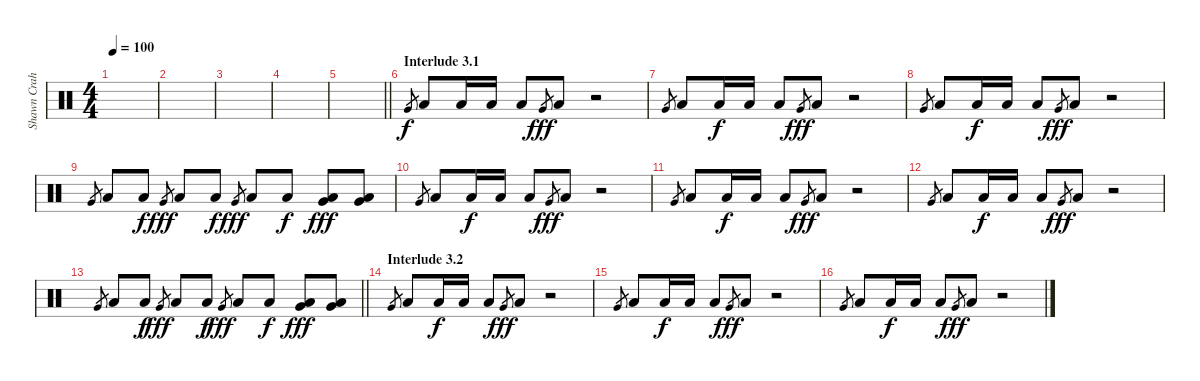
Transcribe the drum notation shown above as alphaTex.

\track ("Shawn Crahan" "Shawn Crah") {instrument percussion}
\staff {score}
\articulation defaults
\ts (4 4)
\tempo 100
\clef neutral
\ks c
|
|
|
|
\barLineRight lightlight
|
\section ("" "Interlude 3.1")
"Very Low Tom (hit)".8{gr} "Low Floor Tom (hit)".8 "Low Floor Tom (hit)".16{dy f} "Low Floor Tom (hit)".16 "Low Floor Tom (hit)".8 "Very Low Tom (hit)".8{gr dy fff} "Low Floor Tom (hit)".8 r.2 |
"Very Low Tom (hit)".8{gr} "Low Floor Tom (hit)".8 "Low Floor Tom (hit)".16{dy f} "Low Floor Tom (hit)".16 "Low Floor Tom (hit)".8 "Very Low Tom (hit)".8{gr dy fff} "Low Floor Tom (hit)".8 r.2 |
"Very Low Tom (hit)".8{gr} "Low Floor Tom (hit)".8 "Low Floor Tom (hit)".16{dy f} "Low Floor Tom (hit)".16 "Low Floor Tom (hit)".8 "Very Low Tom (hit)".8{gr dy fff} "Low Floor Tom (hit)".8 r.2 |
"Very Low Tom (hit)".8{gr} "Low Floor Tom (hit)".8 "Low Floor Tom (hit)".8{dy f} "Very Low Tom (hit)".8{gr dy fff} "Low Floor Tom (hit)".8 "Low Floor Tom (hit)".8{dy f} "Very Low Tom (hit)".8{gr dy fff} "Low Floor Tom (hit)".8 "Low Floor Tom (hit)".8{dy f} ("Very Low Tom (hit)" "Low Floor Tom (hit)").8{dy fff} ("Very Low Tom (hit)" "Low Floor Tom (hit)").8 |
"Very Low Tom (hit)".8{gr} "Low Floor Tom (hit)".8 "Low Floor Tom (hit)".16{dy f} "Low Floor Tom (hit)".16 "Low Floor Tom (hit)".8 "Very Low Tom (hit)".8{gr dy fff} "Low Floor Tom (hit)".8 r.2 |
"Very Low Tom (hit)".8{gr} "Low Floor Tom (hit)".8 "Low Floor Tom (hit)".16{dy f} "Low Floor Tom (hit)".16 "Low Floor Tom (hit)".8 "Very Low Tom (hit)".8{gr dy fff} "Low Floor Tom (hit)".8 r.2 |
"Very Low Tom (hit)".8{gr} "Low Floor Tom (hit)".8 "Low Floor Tom (hit)".16{dy f} "Low Floor Tom (hit)".16 "Low Floor Tom (hit)".8 "Very Low Tom (hit)".8{gr dy fff} "Low Floor Tom (hit)".8 r.2 |
\barLineRight lightlight "Very Low Tom (hit)".8{gr} "Low Floor Tom (hit)".8 "Low Floor Tom (hit)".8{dy f} "Very Low Tom (hit)".8{gr dy fff} "Low Floor Tom (hit)".8 "Low Floor Tom (hit)".8{dy f} "Very Low Tom (hit)".8{gr dy fff} "Low Floor Tom (hit)".8 "Low Floor Tom (hit)".8{dy f}
("Very Low Tom (hit)" "Low Floor Tom (hit)").8{dy fff} ("Very Low Tom (hit)" "Low Floor Tom (hit)").8 |
\section ("" "Interlude 3.2")
"Very Low Tom (hit)".8{gr} "Low Floor Tom (hit)".8 "Low Floor Tom (hit)".16{dy f} "Low Floor Tom (hit)".16 "Low Floor Tom (hit)".8 "Very Low Tom (hit)".8{gr dy fff} "Low Floor Tom (hit)".8 r.2 |
"Very Low Tom (hit)".8{gr} "Low Floor Tom (hit)".8 "Low Floor Tom (hit)".16{dy f} "Low Floor Tom (hit)".16 "Low Floor Tom (hit)".8 "Very Low Tom (hit)".8{gr dy fff} "Low Floor Tom (hit)".8 r.2 |
"Very Low Tom (hit)".8{gr} "Low Floor Tom (hit)".8 "Low Floor Tom (hit)".16{dy f} "Low Floor Tom (hit)".16 "Low Floor Tom (hit)".8 "Very Low Tom (hit)".8{gr dy fff} "Low Floor Tom (hit)".8 r.2
